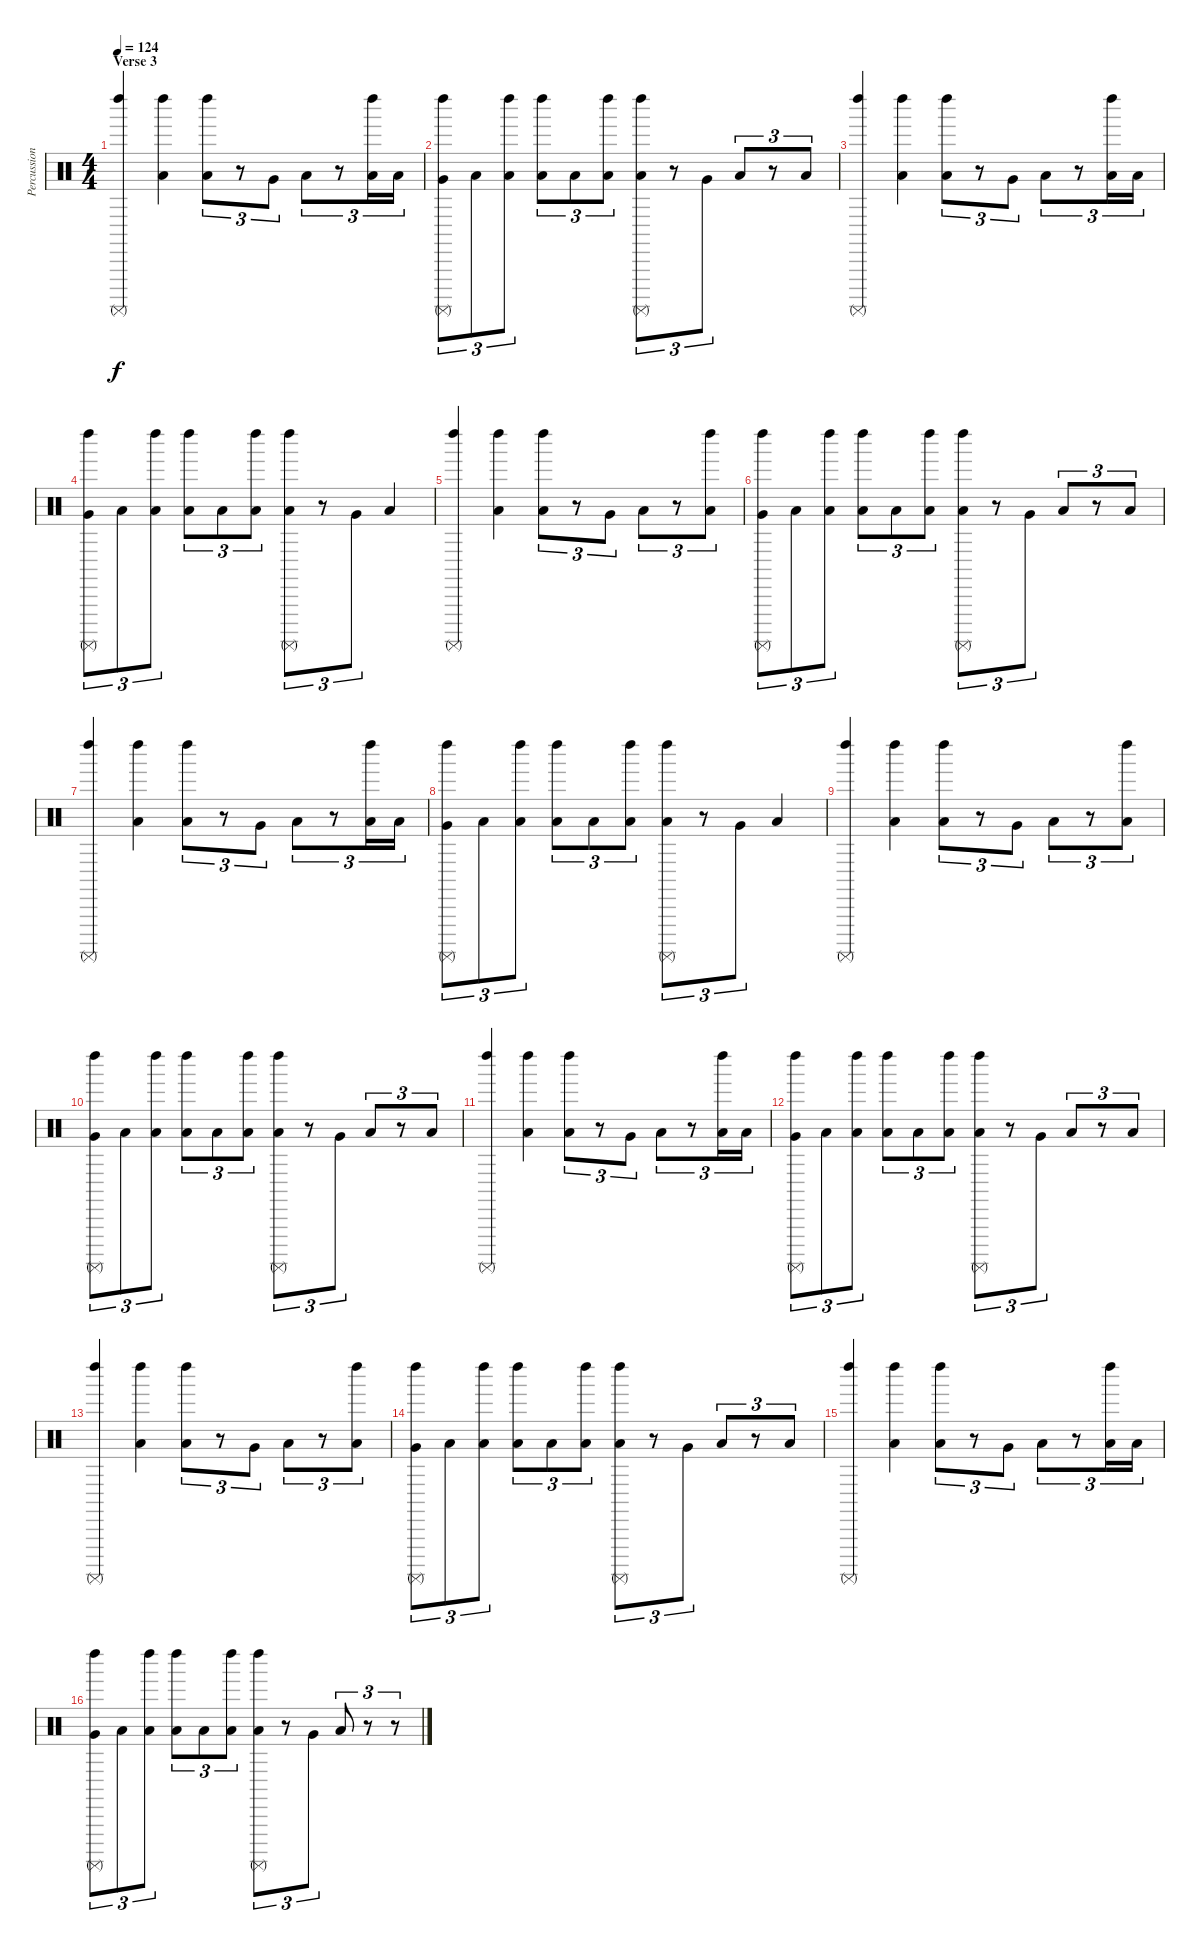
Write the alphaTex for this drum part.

\track ("Percussion" "Percussion") {instrument percussion}
\staff {score}
\articulation defaults
\ts (4 4)
\section ("" "Verse 3")
\tempo 124
\clef neutral
\ks c
("Left Maraca (hit)" "Surdo (mute)").4{dy f} ("Left Maraca (hit)" "Low Floor Tom (hit)").4 ("Left Maraca (hit)" "Low Floor Tom (hit)").8{tu (3 2)} r.8{tu (3 2)} "Very Low Tom (hit)".8{tu (3 2)} "Low Floor Tom (hit)".8{tu (3 2)} r.8{tu (3 2)} ("Left Maraca (hit)" "Low Floor Tom (hit)").16{tu (3 2)} "Low Floor Tom (hit)".16{tu (3 2)} |
("Left Maraca (hit)" "Very Low Tom (hit)" "Surdo (mute)").8{tu (3 2)} "Low Floor Tom (hit)".8{tu (3 2)} ("Left Maraca (hit)" "Low Floor Tom (hit)").8{tu (3 2)} ("Left Maraca (hit)" "Low Floor Tom (hit)").8{tu (3 2)} "Low Floor Tom (hit)".8{tu (3 2)} ("Left Maraca (hit)" "Low Floor Tom (hit)").8{tu (3 2)} ("Left Maraca (hit)" "Low Floor Tom (hit)" "Surdo (mute)").8{tu (3 2)} r.8{tu (3 2)} "Very Low Tom (hit)".8{tu (3 2)} "Low Floor Tom (hit)".8{tu (3 2)} r.8{tu (3 2)} "Low Floor Tom (hit)".8{tu (3 2)} |
("Left Maraca (hit)" "Surdo (mute)").4 ("Left Maraca (hit)" "Low Floor Tom (hit)").4 ("Left Maraca (hit)" "Low Floor Tom (hit)").8{tu (3 2)} r.8{tu (3 2)} "Very Low Tom (hit)".8{tu (3 2)} "Low Floor Tom (hit)".8{tu (3 2)} r.8{tu (3 2)} ("Left Maraca (hit)" "Low Floor Tom (hit)").16{tu (3 2)} "Low Floor Tom (hit)".16{tu (3 2)} |
("Left Maraca (hit)" "Very Low Tom (hit)" "Surdo (mute)").8{tu (3 2)} "Low Floor Tom (hit)".8{tu (3 2)} ("Left Maraca (hit)" "Low Floor Tom (hit)").8{tu (3 2)} ("Left Maraca (hit)" "Low Floor Tom (hit)").8{tu (3 2)} "Low Floor Tom (hit)".8{tu (3 2)} ("Left Maraca (hit)" "Low Floor Tom (hit)").8{tu (3 2)} ("Left Maraca (hit)" "Low Floor Tom (hit)" "Surdo (mute)").8{tu (3 2)} r.8{tu (3 2)} "Very Low Tom (hit)".8{tu (3 2)} "Low Floor Tom (hit)".4 |
("Left Maraca (hit)" "Surdo (mute)").4 ("Left Maraca (hit)" "Low Floor Tom (hit)").4 ("Left Maraca (hit)" "Low Floor Tom (hit)").8{tu (3 2)} r.8{tu (3 2)} "Very Low Tom (hit)".8{tu (3 2)} "Low Floor Tom (hit)".8{tu (3 2)} r.8{tu (3 2)} ("Left Maraca (hit)" "Low Floor Tom (hit)").8{tu (3 2)} |
("Left Maraca (hit)" "Very Low Tom (hit)" "Surdo (mute)").8{tu (3 2)} "Low Floor Tom (hit)".8{tu (3 2)} ("Left Maraca (hit)" "Low Floor Tom (hit)").8{tu (3 2)} ("Left Maraca (hit)" "Low Floor Tom (hit)").8{tu (3 2)} "Low Floor Tom (hit)".8{tu (3 2)} ("Left Maraca (hit)" "Low Floor Tom (hit)").8{tu (3 2)} ("Left Maraca (hit)" "Low Floor Tom (hit)" "Surdo (mute)").8{tu (3 2)} r.8{tu (3 2)} "Very Low Tom (hit)".8{tu (3 2)} "Low Floor Tom (hit)".8{tu (3 2)} r.8{tu (3 2)} "Low Floor Tom (hit)".8{tu (3 2)} |
("Left Maraca (hit)" "Surdo (mute)").4 ("Left Maraca (hit)" "Low Floor Tom (hit)").4 ("Left Maraca (hit)" "Low Floor Tom (hit)").8{tu (3 2)} r.8{tu (3 2)} "Very Low Tom (hit)".8{tu (3 2)} "Low Floor Tom (hit)".8{tu (3 2)} r.8{tu (3 2)} ("Left Maraca (hit)" "Low Floor Tom (hit)").16{tu (3 2)} "Low Floor Tom (hit)".16{tu (3 2)} |
("Left Maraca (hit)" "Very Low Tom (hit)" "Surdo (mute)").8{tu (3 2)} "Low Floor Tom (hit)".8{tu (3 2)} ("Left Maraca (hit)" "Low Floor Tom (hit)").8{tu (3 2)} ("Left Maraca (hit)" "Low Floor Tom (hit)").8{tu (3 2)} "Low Floor Tom (hit)".8{tu (3 2)} ("Left Maraca (hit)" "Low Floor Tom (hit)").8{tu (3 2)} ("Left Maraca (hit)" "Low Floor Tom (hit)" "Surdo (mute)").8{tu (3 2)} r.8{tu (3 2)} "Very Low Tom (hit)".8{tu (3 2)} "Low Floor Tom (hit)".4 |
("Left Maraca (hit)" "Surdo (mute)").4 ("Left Maraca (hit)" "Low Floor Tom (hit)").4 ("Left Maraca (hit)" "Low Floor Tom (hit)").8{tu (3 2)} r.8{tu (3 2)} "Very Low Tom (hit)".8{tu (3 2)} "Low Floor Tom (hit)".8{tu (3 2)} r.8{tu (3 2)} ("Left Maraca (hit)" "Low Floor Tom (hit)").8{tu (3 2)} |
("Left Maraca (hit)" "Very Low Tom (hit)" "Surdo (mute)").8{tu (3 2)} "Low Floor Tom (hit)".8{tu (3 2)} ("Left Maraca (hit)" "Low Floor Tom (hit)").8{tu (3 2)} ("Left Maraca (hit)" "Low Floor Tom (hit)").8{tu (3 2)} "Low Floor Tom (hit)".8{tu (3 2)} ("Left Maraca (hit)" "Low Floor Tom (hit)").8{tu (3 2)} ("Left Maraca (hit)" "Low Floor Tom (hit)" "Surdo (mute)").8{tu (3 2)} r.8{tu (3 2)} "Very Low Tom (hit)".8{tu (3 2)} "Low Floor Tom (hit)".8{tu (3 2)} r.8{tu (3 2)} "Low Floor Tom (hit)".8{tu (3 2)} |
("Left Maraca (hit)" "Surdo (mute)").4 ("Left Maraca (hit)" "Low Floor Tom (hit)").4 ("Left Maraca (hit)" "Low Floor Tom (hit)").8{tu (3 2)} r.8{tu (3 2)} "Very Low Tom (hit)".8{tu (3 2)} "Low Floor Tom (hit)".8{tu (3 2)} r.8{tu (3 2)} ("Left Maraca (hit)" "Low Floor Tom (hit)").16{tu (3 2)} "Low Floor Tom (hit)".16{tu (3 2)} |
("Left Maraca (hit)" "Very Low Tom (hit)" "Surdo (mute)").8{tu (3 2)} "Low Floor Tom (hit)".8{tu (3 2)} ("Left Maraca (hit)" "Low Floor Tom (hit)").8{tu (3 2)} ("Left Maraca (hit)" "Low Floor Tom (hit)").8{tu (3 2)} "Low Floor Tom (hit)".8{tu (3 2)} ("Left Maraca (hit)" "Low Floor Tom (hit)").8{tu (3 2)} ("Left Maraca (hit)" "Low Floor Tom (hit)" "Surdo (mute)").8{tu (3 2)} r.8{tu (3 2)} "Very Low Tom (hit)".8{tu (3 2)} "Low Floor Tom (hit)".8{tu (3 2)} r.8{tu (3 2)} "Low Floor Tom (hit)".8{tu (3 2)} |
("Left Maraca (hit)" "Surdo (mute)").4 ("Left Maraca (hit)" "Low Floor Tom (hit)").4 ("Left Maraca (hit)" "Low Floor Tom (hit)").8{tu (3 2)} r.8{tu (3 2)} "Very Low Tom (hit)".8{tu (3 2)} "Low Floor Tom (hit)".8{tu (3 2)} r.8{tu (3 2)} ("Left Maraca (hit)" "Low Floor Tom (hit)").8{tu (3 2)} |
("Left Maraca (hit)" "Very Low Tom (hit)" "Surdo (mute)").8{tu (3 2)} "Low Floor Tom (hit)".8{tu (3 2)} ("Left Maraca (hit)" "Low Floor Tom (hit)").8{tu (3 2)} ("Left Maraca (hit)" "Low Floor Tom (hit)").8{tu (3 2)} "Low Floor Tom (hit)".8{tu (3 2)} ("Left Maraca (hit)" "Low Floor Tom (hit)").8{tu (3 2)} ("Left Maraca (hit)" "Low Floor Tom (hit)" "Surdo (mute)").8{tu (3 2)} r.8{tu (3 2)} "Very Low Tom (hit)".8{tu (3 2)} "Low Floor Tom (hit)".8{tu (3 2)} r.8{tu (3 2)} "Low Floor Tom (hit)".8{tu (3 2)} |
("Left Maraca (hit)" "Surdo (mute)").4 ("Left Maraca (hit)" "Low Floor Tom (hit)").4 ("Left Maraca (hit)" "Low Floor Tom (hit)").8{tu (3 2)} r.8{tu (3 2)} "Very Low Tom (hit)".8{tu (3 2)} "Low Floor Tom (hit)".8{tu (3 2)} r.8{tu (3 2)} ("Left Maraca (hit)" "Low Floor Tom (hit)").16{tu (3 2)} "Low Floor Tom (hit)".16{tu (3 2)} |
("Left Maraca (hit)" "Very Low Tom (hit)" "Surdo (mute)").8{tu (3 2)} "Low Floor Tom (hit)".8{tu (3 2)} ("Left Maraca (hit)" "Low Floor Tom (hit)").8{tu (3 2)} ("Left Maraca (hit)" "Low Floor Tom (hit)").8{tu (3 2)} "Low Floor Tom (hit)".8{tu (3 2)} ("Left Maraca (hit)" "Low Floor Tom (hit)").8{tu (3 2)} ("Left Maraca (hit)" "Low Floor Tom (hit)" "Surdo (mute)").8{tu (3 2)} r.8{tu (3 2)} "Very Low Tom (hit)".8{tu (3 2)} "Low Floor Tom (hit)".8{tu (3 2)} r.8{tu (3 2)} r.8{tu (3 2)}
